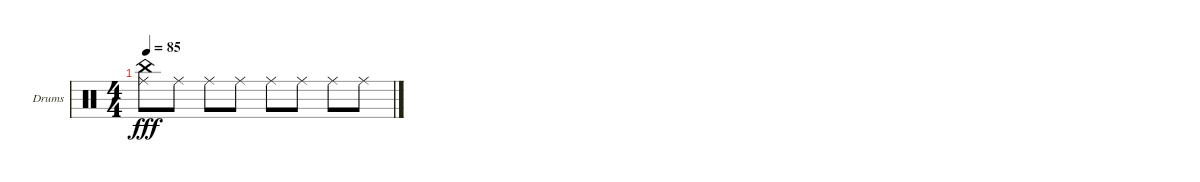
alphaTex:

\defaultSystemsLayout 4
\bracketExtendMode groupsimilarinstruments
\firstSystemTrackNameOrientation horizontal
\otherSystemsTrackNameOrientation horizontal
\track ("Ride ppp" "Drums") {instrument percussion}
\staff {score}
\articulation defaults
\ts (4 4)
\tempo 85
\clef neutral
\ks c
("Ride (middle)" "China (hit)").8{dy fff} "Ride (middle)".8 "Ride (middle)".8 "Ride (middle)".8 "Ride (middle)".8 "Ride (middle)".8 "Ride (middle)".8 "Ride (middle)".8
